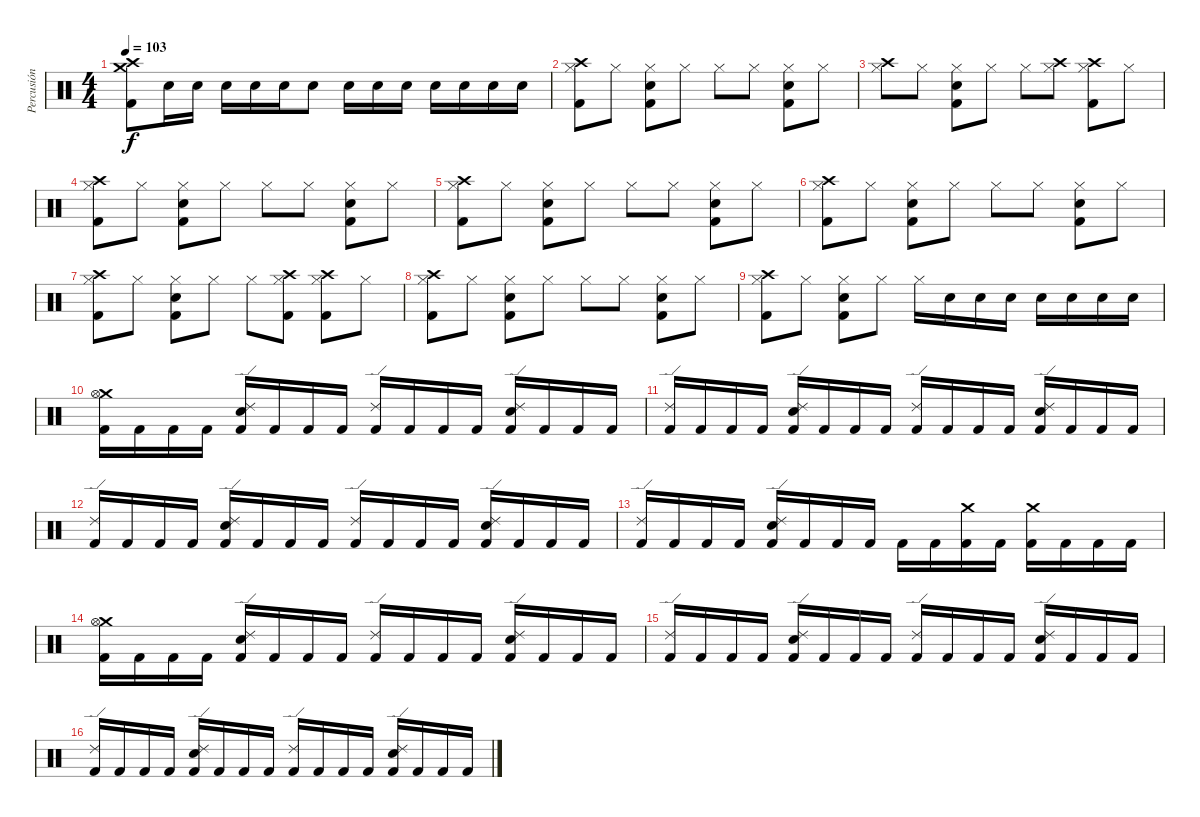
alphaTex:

\track ("Percusión" "Percusión") {instrument percussion}
\staff {score}
\articulation defaults
\ts (4 4)
\tempo 103
\clef neutral
\ks c
("Crash medium (hit)" "Crash high (hit)" "Kick (hit) 2").8{dy f} "Snare (hit) 2".16 "Snare (hit) 2".16 "Snare (hit) 2".16 "Snare (hit) 2".16 "Snare (hit) 2".16 "Snare (hit) 2".8 "Snare (hit) 2".16 "Snare (hit) 2".16 "Snare (hit) 2".16 "Snare (hit) 2".16 "Snare (hit) 2".16 "Snare (hit) 2".16 "Snare (hit) 2".16 |
("Hi-Hat (closed)" "Crash high (hit)" "Kick (hit) 2").8 "Hi-Hat (closed)".8 ("Hi-Hat (closed)" "Snare (hit) 2" "Kick (hit) 2").8 "Hi-Hat (closed)".8 "Hi-Hat (closed)".8 "Hi-Hat (closed)".8 ("Hi-Hat (closed)" "Snare (hit) 2" "Kick (hit) 2").8 "Hi-Hat (closed)".8 |
("Hi-Hat (closed)" "Crash high (hit)").8 "Hi-Hat (closed)".8 ("Hi-Hat (closed)" "Snare (hit) 2" "Kick (hit) 2").8 "Hi-Hat (closed)".8 "Hi-Hat (closed)".8 ("Hi-Hat (closed)" "Crash high (hit)").8 ("Hi-Hat (closed)" "Crash high (hit)" "Kick (hit) 2").8 "Hi-Hat (closed)".8 |
("Hi-Hat (closed)" "Crash high (hit)" "Kick (hit) 2").8 "Hi-Hat (closed)".8 ("Hi-Hat (closed)" "Snare (hit) 2" "Kick (hit) 2").8 "Hi-Hat (closed)".8 "Hi-Hat (closed)".8 "Hi-Hat (closed)".8 ("Hi-Hat (closed)" "Snare (hit) 2" "Kick (hit) 2").8 "Hi-Hat (closed)".8 |
("Hi-Hat (closed)" "Crash high (hit)" "Kick (hit) 2").8 "Hi-Hat (closed)".8 ("Hi-Hat (closed)" "Snare (hit) 2" "Kick (hit) 2").8 "Hi-Hat (closed)".8 "Hi-Hat (closed)".8 "Hi-Hat (closed)".8 ("Hi-Hat (closed)" "Snare (hit) 2" "Kick (hit) 2").8 "Hi-Hat (closed)".8 |
("Hi-Hat (closed)" "Crash high (hit)" "Kick (hit) 2").8 "Hi-Hat (closed)".8 ("Hi-Hat (closed)" "Snare (hit) 2" "Kick (hit) 2").8 "Hi-Hat (closed)".8 "Hi-Hat (closed)".8 "Hi-Hat (closed)".8 ("Hi-Hat (closed)" "Snare (hit) 2" "Kick (hit) 2").8 "Hi-Hat (closed)".8 |
("Hi-Hat (closed)" "Crash high (hit)" "Kick (hit) 2").8 "Hi-Hat (closed)".8 ("Hi-Hat (closed)" "Snare (hit) 2" "Kick (hit) 2").8 "Hi-Hat (closed)".8 "Hi-Hat (closed)".8 ("Hi-Hat (closed)" "Crash high (hit)" "Kick (hit) 2").8 ("Hi-Hat (closed)" "Crash high (hit)" "Kick (hit) 2").8 "Hi-Hat (closed)".8 |
("Hi-Hat (closed)" "Crash high (hit)" "Kick (hit) 2").8 "Hi-Hat (closed)".8 ("Hi-Hat (closed)" "Snare (hit) 2" "Kick (hit) 2").8 "Hi-Hat (closed)".8 "Hi-Hat (closed)".8 "Hi-Hat (closed)".8 ("Hi-Hat (closed)" "Snare (hit) 2" "Kick (hit) 2").8 "Hi-Hat (closed)".8 |
("Hi-Hat (closed)" "Crash high (hit)" "Kick (hit) 2").8 "Hi-Hat (closed)".8 ("Hi-Hat (closed)" "Snare (hit) 2" "Kick (hit) 2").8 "Hi-Hat (closed)".8 "Hi-Hat (closed)".16 "Snare (hit) 2".16 "Snare (hit) 2".16 "Snare (hit) 2".16 "Snare (hit) 2".16 "Snare (hit) 2".16 "Snare (hit) 2".16 "Snare (hit) 2".16 |
("Crash medium (hit)" "Hi-Hat (open)" "Kick (hit) 2").16 "Kick (hit) 2".16 "Kick (hit) 2".16 "Kick (hit) 2".16 ("Ride (edge) 2" "Snare (hit) 2" "Kick (hit) 2").16 "Kick (hit) 2".16 "Kick (hit) 2".16 "Kick (hit) 2".16 ("Ride (edge) 2" "Kick (hit) 2").16 "Kick (hit) 2".16 "Kick (hit) 2".16 "Kick (hit) 2".16 ("Ride (edge) 2" "Snare (hit) 2" "Kick (hit) 2").16 "Kick (hit) 2".16 "Kick (hit) 2".16 "Kick (hit) 2".16 |
("Ride (edge) 2" "Kick (hit) 2").16 "Kick (hit) 2".16 "Kick (hit) 2".16 "Kick (hit) 2".16 ("Ride (edge) 2" "Snare (hit) 2" "Kick (hit) 2").16 "Kick (hit) 2".16 "Kick (hit) 2".16 "Kick (hit) 2".16 ("Ride (edge) 2" "Kick (hit) 2").16 "Kick (hit) 2".16 "Kick (hit) 2".16 "Kick (hit) 2".16 ("Ride (edge) 2" "Snare (hit) 2" "Kick (hit) 2").16 "Kick (hit) 2".16 "Kick (hit) 2".16 "Kick (hit) 2".16 |
("Ride (edge) 2" "Kick (hit) 2").16 "Kick (hit) 2".16 "Kick (hit) 2".16 "Kick (hit) 2".16 ("Ride (edge) 2" "Snare (hit) 2" "Kick (hit) 2").16 "Kick (hit) 2".16 "Kick (hit) 2".16 "Kick (hit) 2".16 ("Ride (edge) 2" "Kick (hit) 2").16 "Kick (hit) 2".16 "Kick (hit) 2".16 "Kick (hit) 2".16 ("Ride (edge) 2" "Snare (hit) 2" "Kick (hit) 2").16 "Kick (hit) 2".16 "Kick (hit) 2".16 "Kick (hit) 2".16 |
("Ride (edge) 2" "Kick (hit) 2").16 "Kick (hit) 2".16 "Kick (hit) 2".16 "Kick (hit) 2".16 ("Ride (edge) 2" "Snare (hit) 2" "Kick (hit) 2").16 "Kick (hit) 2".16 "Kick (hit) 2".16 "Kick (hit) 2".16 "Kick (hit) 2".16 "Kick (hit) 2".16 ("Crash medium (hit)" "Kick (hit) 2").16 "Kick (hit) 2".16 ("Crash medium (hit)" "Kick (hit) 2").16 "Kick (hit) 2".16 "Kick (hit) 2".16 "Kick (hit) 2".16 |
("Crash medium (hit)" "Hi-Hat (open)" "Kick (hit) 2").16 "Kick (hit) 2".16 "Kick (hit) 2".16 "Kick (hit) 2".16 ("Ride (edge) 2" "Snare (hit) 2" "Kick (hit) 2").16 "Kick (hit) 2".16 "Kick (hit) 2".16 "Kick (hit) 2".16 ("Ride (edge) 2" "Kick (hit) 2").16 "Kick (hit) 2".16 "Kick (hit) 2".16 "Kick (hit) 2".16 ("Ride (edge) 2" "Snare (hit) 2" "Kick (hit) 2").16 "Kick (hit) 2".16 "Kick (hit) 2".16 "Kick (hit) 2".16 |
("Ride (edge) 2" "Kick (hit) 2").16 "Kick (hit) 2".16 "Kick (hit) 2".16 "Kick (hit) 2".16 ("Ride (edge) 2" "Snare (hit) 2" "Kick (hit) 2").16 "Kick (hit) 2".16 "Kick (hit) 2".16 "Kick (hit) 2".16 ("Ride (edge) 2" "Kick (hit) 2").16 "Kick (hit) 2".16 "Kick (hit) 2".16 "Kick (hit) 2".16 ("Ride (edge) 2" "Snare (hit) 2" "Kick (hit) 2").16 "Kick (hit) 2".16 "Kick (hit) 2".16 "Kick (hit) 2".16 |
("Ride (edge) 2" "Kick (hit) 2").16 "Kick (hit) 2".16 "Kick (hit) 2".16 "Kick (hit) 2".16 ("Ride (edge) 2" "Snare (hit) 2" "Kick (hit) 2").16 "Kick (hit) 2".16 "Kick (hit) 2".16 "Kick (hit) 2".16 ("Ride (edge) 2" "Kick (hit) 2").16 "Kick (hit) 2".16 "Kick (hit) 2".16 "Kick (hit) 2".16 ("Ride (edge) 2" "Snare (hit) 2" "Kick (hit) 2").16 "Kick (hit) 2".16 "Kick (hit) 2".16 "Kick (hit) 2".16
